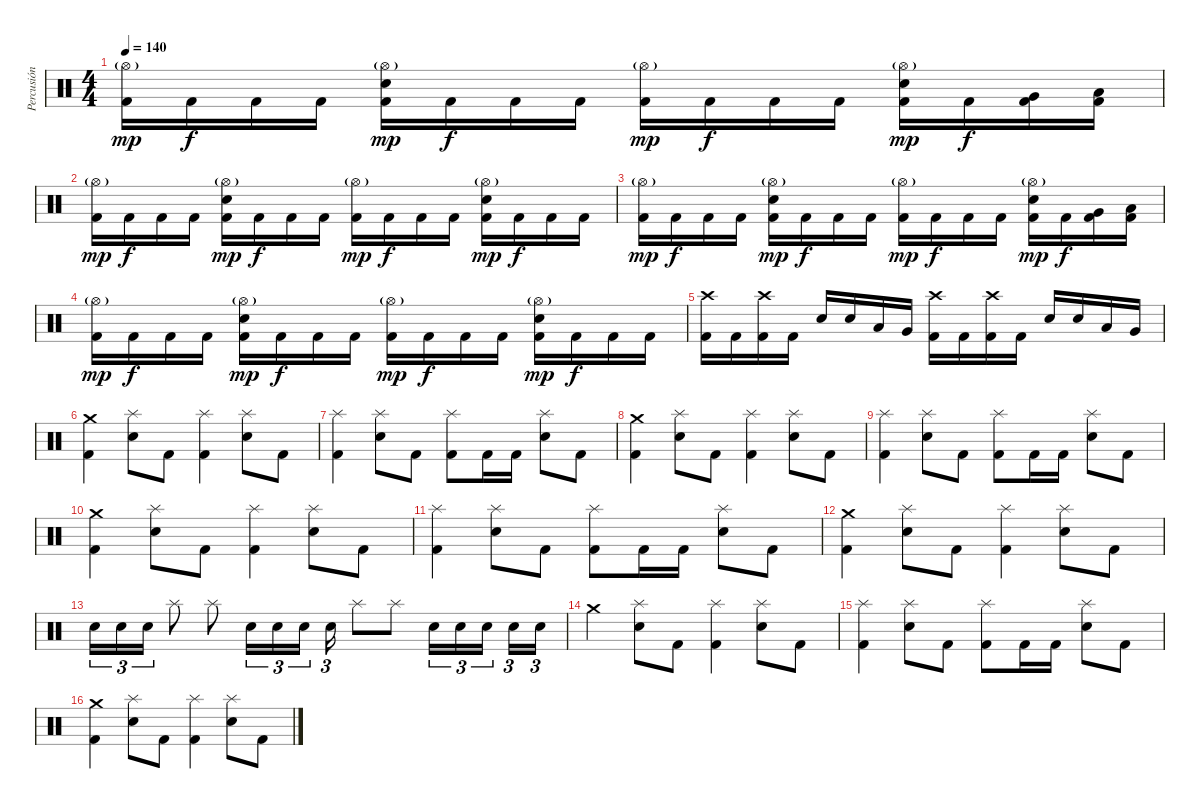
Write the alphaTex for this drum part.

\track ("Percusión" "Percusión") {instrument percussion}
\staff {score}
\articulation defaults
\ts (4 4)
\tempo 140
\clef neutral
\ks c
("Hi-Hat (open)"{g} "Kick (hit) 2").16{dy mp} "Kick (hit) 2".16{dy f} "Kick (hit) 2".16 "Kick (hit) 2".16 ("Hi-Hat (open)"{g} "Electric Snare (hit)" "Kick (hit) 2").16{dy mp} "Kick (hit) 2".16{dy f} "Kick (hit) 2".16 "Kick (hit) 2".16 ("Hi-Hat (open)"{g} "Kick (hit) 2").16{dy mp} "Kick (hit) 2".16{dy f} "Kick (hit) 2".16 "Kick (hit) 2".16 ("Hi-Hat (open)"{g} "Electric Snare (hit)" "Kick (hit) 2").16{dy mp} "Kick (hit) 2".16{dy f} ("Very Low Tom (hit)" "Kick (hit) 2").16 ("Low Floor Tom (hit)" "Kick (hit) 2").16 |
("Hi-Hat (open)"{g} "Kick (hit) 2").16{dy mp} "Kick (hit) 2".16{dy f} "Kick (hit) 2".16 "Kick (hit) 2".16 ("Hi-Hat (open)"{g} "Electric Snare (hit)" "Kick (hit) 2").16{dy mp} "Kick (hit) 2".16{dy f} "Kick (hit) 2".16 "Kick (hit) 2".16 ("Hi-Hat (open)"{g} "Kick (hit) 2").16{dy mp} "Kick (hit) 2".16{dy f} "Kick (hit) 2".16 "Kick (hit) 2".16 ("Hi-Hat (open)"{g} "Electric Snare (hit)" "Kick (hit) 2").16{dy mp} "Kick (hit) 2".16{dy f} "Kick (hit) 2".16 "Kick (hit) 2".16 |
("Hi-Hat (open)"{g} "Kick (hit) 2").16{dy mp} "Kick (hit) 2".16{dy f} "Kick (hit) 2".16 "Kick (hit) 2".16 ("Hi-Hat (open)"{g} "Electric Snare (hit)" "Kick (hit) 2").16{dy mp} "Kick (hit) 2".16{dy f} "Kick (hit) 2".16 "Kick (hit) 2".16 ("Hi-Hat (open)"{g} "Kick (hit) 2").16{dy mp} "Kick (hit) 2".16{dy f} "Kick (hit) 2".16 "Kick (hit) 2".16 ("Hi-Hat (open)"{g} "Electric Snare (hit)" "Kick (hit) 2").16{dy mp} "Kick (hit) 2".16{dy f} ("Very Low Tom (hit)" "Kick (hit) 2").16 ("Low Floor Tom (hit)" "Kick (hit) 2").16 |
("Hi-Hat (open)"{g} "Kick (hit) 2").16{dy mp} "Kick (hit) 2".16{dy f} "Kick (hit) 2".16 "Kick (hit) 2".16 ("Hi-Hat (open)"{g} "Electric Snare (hit)" "Kick (hit) 2").16{dy mp} "Kick (hit) 2".16{dy f} "Kick (hit) 2".16 "Kick (hit) 2".16 ("Hi-Hat (open)"{g} "Kick (hit) 2").16{dy mp} "Kick (hit) 2".16{dy f} "Kick (hit) 2".16 "Kick (hit) 2".16 ("Hi-Hat (open)"{g} "Electric Snare (hit)" "Kick (hit) 2").16{dy mp} "Kick (hit) 2".16{dy f} "Kick (hit) 2".16 "Kick (hit) 2".16 |
("Crash high (hit)" "Kick (hit) 2").16 "Kick (hit) 2".16 ("Crash high (hit)" "Kick (hit) 2").16 "Kick (hit) 2".16 "Electric Snare (hit)".16 "Electric Snare (hit)".16 "Low Tom (hit)".16 "Very Low Tom (hit)".16 ("Crash high (hit)" "Kick (hit) 2").16 "Kick (hit) 2".16 ("Crash high (hit)" "Kick (hit) 2").16 "Kick (hit) 2".16 "Electric Snare (hit)".16 "Electric Snare (hit)".16 "Low Tom (hit)".16 "Very Low Tom (hit)".16 |
("Crash medium (hit)" "Kick (hit) 2").4 ("Splash (hit)" "Electric Snare (hit)").8 "Kick (hit) 2".8 ("Splash (hit)" "Kick (hit) 2").4 ("Splash (hit)" "Electric Snare (hit)").8 "Kick (hit) 2".8 |
("Splash (hit)" "Kick (hit) 2").4 ("Splash (hit)" "Electric Snare (hit)").8 "Kick (hit) 2".8 ("Splash (hit)" "Kick (hit) 2").8 "Kick (hit) 2".16 "Kick (hit) 2".16 ("Splash (hit)" "Electric Snare (hit)").8 "Kick (hit) 2".8 |
("Crash medium (hit)" "Kick (hit) 2").4 ("Splash (hit)" "Electric Snare (hit)").8 "Kick (hit) 2".8 ("Splash (hit)" "Kick (hit) 2").4 ("Splash (hit)" "Electric Snare (hit)").8 "Kick (hit) 2".8 |
("Splash (hit)" "Kick (hit) 2").4 ("Splash (hit)" "Electric Snare (hit)").8 "Kick (hit) 2".8 ("Splash (hit)" "Kick (hit) 2").8 "Kick (hit) 2".16 "Kick (hit) 2".16 ("Splash (hit)" "Electric Snare (hit)").8 "Kick (hit) 2".8 |
("Crash medium (hit)" "Kick (hit) 2").4 ("Splash (hit)" "Electric Snare (hit)").8 "Kick (hit) 2".8 ("Splash (hit)" "Kick (hit) 2").4 ("Splash (hit)" "Electric Snare (hit)").8 "Kick (hit) 2".8 |
("Splash (hit)" "Kick (hit) 2").4 ("Splash (hit)" "Electric Snare (hit)").8 "Kick (hit) 2".8 ("Splash (hit)" "Kick (hit) 2").8 "Kick (hit) 2".16 "Kick (hit) 2".16 ("Splash (hit)" "Electric Snare (hit)").8 "Kick (hit) 2".8 |
("Crash medium (hit)" "Kick (hit) 2").4 ("Splash (hit)" "Electric Snare (hit)").8 "Kick (hit) 2".8 ("Splash (hit)" "Kick (hit) 2").4 ("Splash (hit)" "Electric Snare (hit)").8 "Kick (hit) 2".8 |
"Electric Snare (hit)".16{tu (3 2)} "Electric Snare (hit)".16{tu (3 2)} "Electric Snare (hit)".16{tu (3 2)} "Splash (hit)".8 "Splash (hit)".8 "Electric Snare (hit)".16{tu (3 2)} "Electric Snare (hit)".16{tu (3 2)} "Electric Snare (hit)".16{tu (3 2)} "Electric Snare (hit)".16{tu (3 2)} "Splash (hit)".8 "Splash (hit)".8 "Electric Snare (hit)".16{tu (3 2)} "Electric Snare (hit)".16{tu (3 2)} "Electric Snare (hit)".16{tu (3 2) beam splitsecondary} "Electric Snare (hit)".16{tu (3 2)} "Electric Snare (hit)".16{tu (3 2)} |
"Crash medium (hit)".4 ("Splash (hit)" "Electric Snare (hit)").8 "Kick (hit) 2".8 ("Splash (hit)" "Kick (hit) 2").4 ("Splash (hit)" "Electric Snare (hit)").8 "Kick (hit) 2".8 |
("Splash (hit)" "Kick (hit) 2").4 ("Splash (hit)" "Electric Snare (hit)").8 "Kick (hit) 2".8 ("Splash (hit)" "Kick (hit) 2").8 "Kick (hit) 2".16 "Kick (hit) 2".16 ("Splash (hit)" "Electric Snare (hit)").8 "Kick (hit) 2".8 |
("Crash medium (hit)" "Kick (hit) 2").4 ("Splash (hit)" "Electric Snare (hit)").8 "Kick (hit) 2".8 ("Splash (hit)" "Kick (hit) 2").4 ("Splash (hit)" "Electric Snare (hit)").8 "Kick (hit) 2".8
